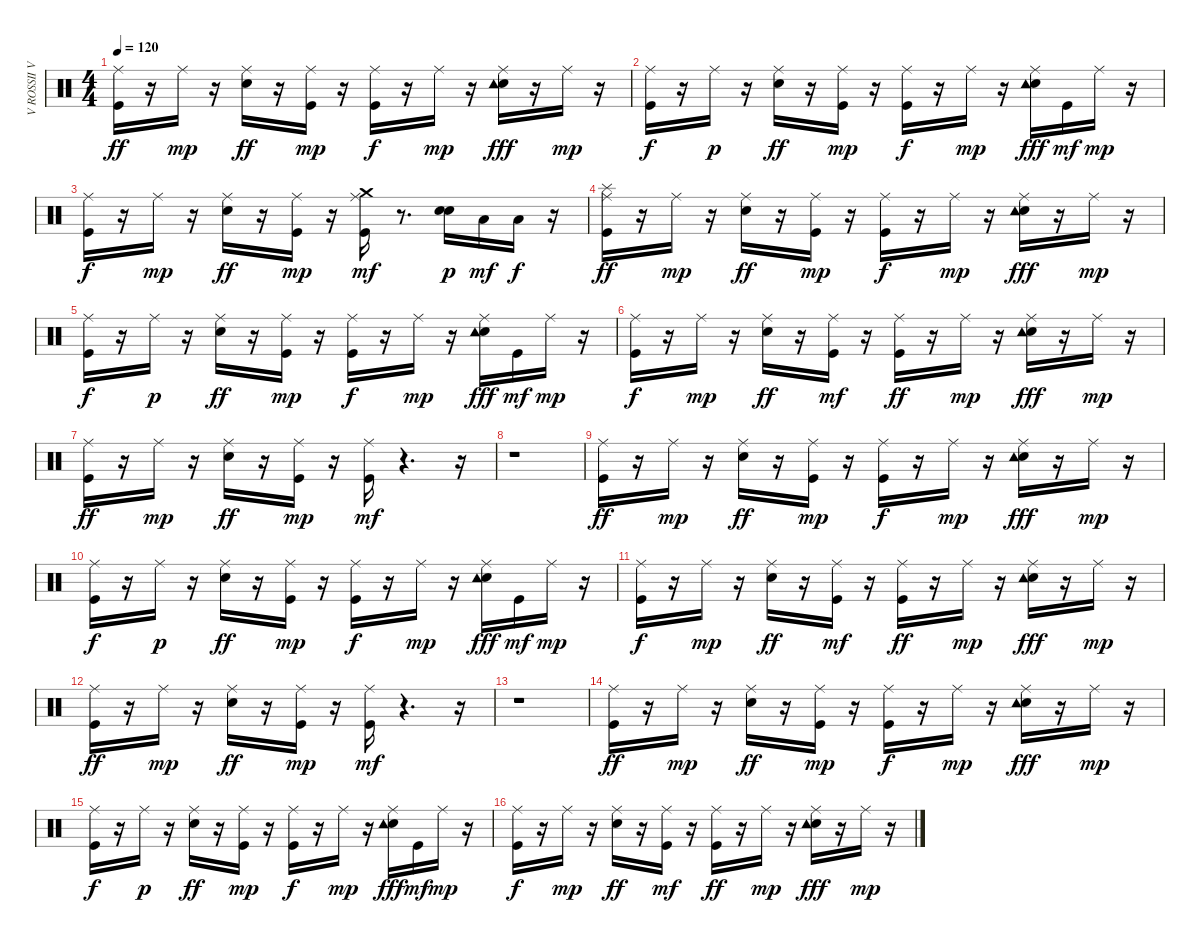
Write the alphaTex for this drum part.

\track ("V ROSSII VECHERA     " "V ROSSII V") {instrument percussion}
\staff {score}
\articulation defaults
\ts (4 4)
\tempo 120
\clef neutral
\ks c
("Ride (middle)" "Kick (hit)").16{dy ff} r.16 "Ride (middle)".16{dy mp} r.16 ("Snare (hit) 2" "Ride (middle)").16{dy ff} r.16 ("Kick (hit)" "Ride (middle)").16{dy mp} r.16 ("Kick (hit)" "Ride (middle)").16{dy f} r.16 "Ride (middle)".16{dy mp} r.16 ("Snare (hit) 2" "Ride (middle)" "Tambourine (hit)").16{dy fff} r.16 "Ride (middle)".16{dy mp} r.16 |
("Ride (middle)" "Kick (hit)").16{dy f} r.16 "Ride (middle)".16{dy p} r.16 ("Snare (hit) 2" "Ride (middle)").16{dy ff} r.16 ("Ride (middle)" "Kick (hit)").16{dy mp} r.16 ("Ride (middle)" "Kick (hit)").16{dy f} r.16 "Ride (middle)".16{dy mp} r.16 ("Snare (hit) 2" "Ride (middle)" "Tambourine (hit)").16{dy fff} "Kick (hit)".16{dy mf} "Ride (middle)".16{dy mp} r.16 |
("Kick (hit)" "Ride (middle)").16{dy f} r.16 "Ride (middle)".16{dy mp} r.16 ("Snare (hit) 2" "Ride (middle)").16{dy ff} r.16 ("Kick (hit)" "Ride (middle)").16{dy mp} r.16 ("Crash medium (hit)" "Kick (hit)" "Ride (middle)").16{dy mf} r.8{d} ("Snare (hit) 2" "Snare (hit) 2").16{dy p} "Low Tom (hit)".16{dy mf} "Low Floor Tom (hit)".16{dy f} r.16 |
("Splash (hit)" "Ride (middle)" "Kick (hit)").16{dy ff} r.16 "Ride (middle)".16{dy mp} r.16 ("Snare (hit) 2" "Ride (middle)").16{dy ff} r.16 ("Kick (hit)" "Ride (middle)").16{dy mp} r.16 ("Kick (hit)" "Ride (middle)").16{dy f} r.16 "Ride (middle)".16{dy mp} r.16 ("Snare (hit) 2" "Ride (middle)" "Tambourine (hit)").16{dy fff} r.16 "Ride (middle)".16{dy mp} r.16 |
("Ride (middle)" "Kick (hit)").16{dy f} r.16 "Ride (middle)".16{dy p} r.16 ("Snare (hit) 2" "Ride (middle)").16{dy ff} r.16 ("Ride (middle)" "Kick (hit)").16{dy mp} r.16 ("Ride (middle)" "Kick (hit)").16{dy f} r.16 "Ride (middle)".16{dy mp} r.16 ("Snare (hit) 2" "Ride (middle)" "Tambourine (hit)").16{dy fff} "Kick (hit)".16{dy mf} "Ride (middle)".16{dy mp} r.16 |
("Kick (hit)" "Ride (middle)").16{dy f} r.16 "Ride (middle)".16{dy mp} r.16 ("Snare (hit) 2" "Ride (middle)").16{dy ff} r.16 ("Ride (middle)" "Kick (hit)").16{dy mf} r.16 ("Ride (middle)" "Kick (hit)").16{dy ff} r.16 "Ride (middle)".16{dy mp} r.16 ("Snare (hit) 2" "Ride (middle)" "Tambourine (hit)").16{dy fff} r.16 "Ride (middle)".16{dy mp} r.16 |
("Kick (hit)" "Ride (middle)").16{dy ff} r.16 "Ride (middle)".16{dy mp} r.16 ("Snare (hit) 2" "Ride (middle)").16{dy ff} r.16 ("Kick (hit)" "Ride (middle)").16{dy mp} r.16 ("Kick (hit)" "Ride (middle)").16{dy mf} r.4{d} r.16 |
r.1 |
("Ride (middle)" "Kick (hit)").16{dy ff} r.16 "Ride (middle)".16{dy mp} r.16 ("Snare (hit) 2" "Ride (middle)").16{dy ff} r.16 ("Kick (hit)" "Ride (middle)").16{dy mp} r.16 ("Kick (hit)" "Ride (middle)").16{dy f} r.16 "Ride (middle)".16{dy mp} r.16 ("Snare (hit) 2" "Ride (middle)" "Tambourine (hit)").16{dy fff} r.16 "Ride (middle)".16{dy mp} r.16 |
("Ride (middle)" "Kick (hit)").16{dy f} r.16 "Ride (middle)".16{dy p} r.16 ("Snare (hit) 2" "Ride (middle)").16{dy ff} r.16 ("Ride (middle)" "Kick (hit)").16{dy mp} r.16 ("Ride (middle)" "Kick (hit)").16{dy f} r.16 "Ride (middle)".16{dy mp} r.16 ("Snare (hit) 2" "Ride (middle)" "Tambourine (hit)").16{dy fff} "Kick (hit)".16{dy mf} "Ride (middle)".16{dy mp} r.16 |
("Kick (hit)" "Ride (middle)").16{dy f} r.16 "Ride (middle)".16{dy mp} r.16 ("Snare (hit) 2" "Ride (middle)").16{dy ff} r.16 ("Ride (middle)" "Kick (hit)").16{dy mf} r.16 ("Ride (middle)" "Kick (hit)").16{dy ff} r.16 "Ride (middle)".16{dy mp} r.16 ("Snare (hit) 2" "Ride (middle)" "Tambourine (hit)").16{dy fff} r.16 "Ride (middle)".16{dy mp} r.16 |
("Kick (hit)" "Ride (middle)").16{dy ff} r.16 "Ride (middle)".16{dy mp} r.16 ("Snare (hit) 2" "Ride (middle)").16{dy ff} r.16 ("Kick (hit)" "Ride (middle)").16{dy mp} r.16 ("Kick (hit)" "Ride (middle)").16{dy mf} r.4{d} r.16 |
r.1 |
("Ride (middle)" "Kick (hit)").16{dy ff} r.16 "Ride (middle)".16{dy mp} r.16 ("Snare (hit) 2" "Ride (middle)").16{dy ff} r.16 ("Kick (hit)" "Ride (middle)").16{dy mp} r.16 ("Kick (hit)" "Ride (middle)").16{dy f} r.16 "Ride (middle)".16{dy mp} r.16 ("Snare (hit) 2" "Ride (middle)" "Tambourine (hit)").16{dy fff} r.16 "Ride (middle)".16{dy mp} r.16 |
("Ride (middle)" "Kick (hit)").16{dy f} r.16 "Ride (middle)".16{dy p} r.16 ("Snare (hit) 2" "Ride (middle)").16{dy ff} r.16 ("Ride (middle)" "Kick (hit)").16{dy mp} r.16 ("Ride (middle)" "Kick (hit)").16{dy f} r.16 "Ride (middle)".16{dy mp} r.16 ("Snare (hit) 2" "Ride (middle)" "Tambourine (hit)").16{dy fff} "Kick (hit)".16{dy mf} "Ride (middle)".16{dy mp} r.16 |
("Kick (hit)" "Ride (middle)").16{dy f} r.16 "Ride (middle)".16{dy mp} r.16 ("Snare (hit) 2" "Ride (middle)").16{dy ff} r.16 ("Ride (middle)" "Kick (hit)").16{dy mf} r.16 ("Ride (middle)" "Kick (hit)").16{dy ff} r.16 "Ride (middle)".16{dy mp} r.16 ("Snare (hit) 2" "Ride (middle)" "Tambourine (hit)").16{dy fff} r.16 "Ride (middle)".16{dy mp} r.16
